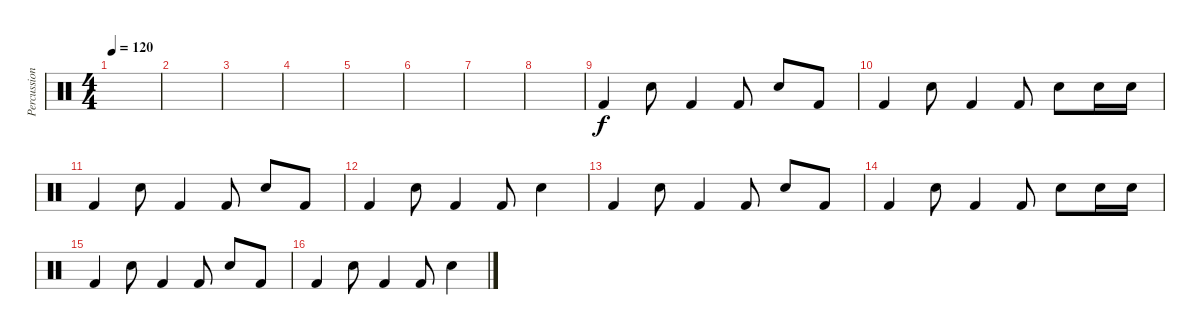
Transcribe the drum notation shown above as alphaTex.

\track ("Percussion" "Percussion") {instrument percussion}
\staff {score}
\articulation defaults
\ts (4 4)
\tempo 120
\clef neutral
\ks c
|
|
|
|
|
|
|
|
"Kick (hit) 2".4 "Hand Clap (hit)".8 "Kick (hit) 2".4 "Kick (hit) 2".8 "Hand Clap (hit)".8 "Kick (hit) 2".8 |
"Kick (hit) 2".4 "Hand Clap (hit)".8 "Kick (hit) 2".4 "Kick (hit) 2".8 "Hand Clap (hit)".8 "Hand Clap (hit)".16 "Hand Clap (hit)".16 |
"Kick (hit) 2".4 "Hand Clap (hit)".8 "Kick (hit) 2".4 "Kick (hit) 2".8 "Hand Clap (hit)".8 "Kick (hit) 2".8 |
"Kick (hit) 2".4 "Hand Clap (hit)".8 "Kick (hit) 2".4 "Kick (hit) 2".8 "Hand Clap (hit)".4 |
"Kick (hit) 2".4 "Hand Clap (hit)".8 "Kick (hit) 2".4 "Kick (hit) 2".8 "Hand Clap (hit)".8 "Kick (hit) 2".8 |
"Kick (hit) 2".4 "Hand Clap (hit)".8 "Kick (hit) 2".4 "Kick (hit) 2".8 "Hand Clap (hit)".8 "Hand Clap (hit)".16 "Hand Clap (hit)".16 |
"Kick (hit) 2".4 "Hand Clap (hit)".8 "Kick (hit) 2".4 "Kick (hit) 2".8 "Hand Clap (hit)".8 "Kick (hit) 2".8 |
"Kick (hit) 2".4 "Hand Clap (hit)".8 "Kick (hit) 2".4 "Kick (hit) 2".8 "Hand Clap (hit)".4
